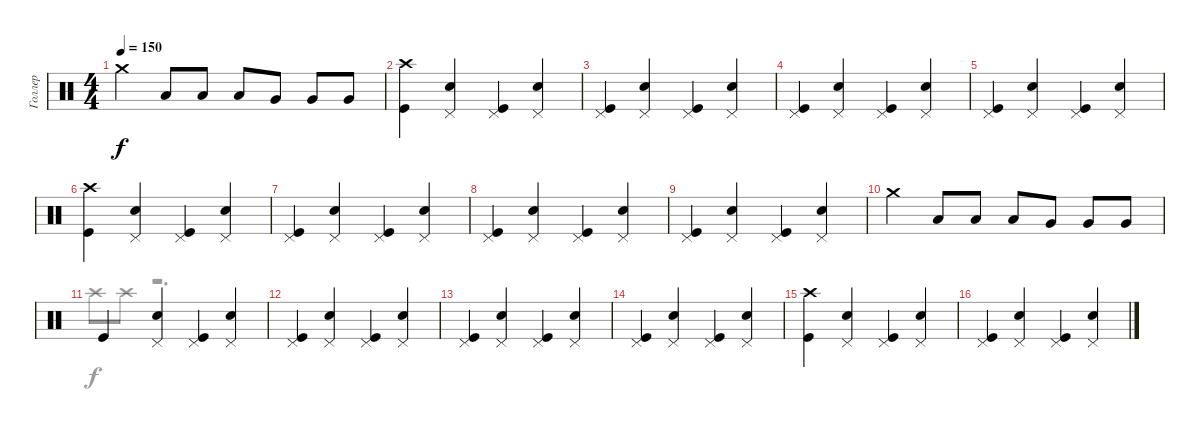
\track ("Голлер" "Голлер") {instrument percussion}
\staff {score}
\articulation defaults
\voice
\ts (4 4)
\tempo 150
\clef neutral
\ks c "Crash medium (hit)".4{dy f} "Low Floor Tom (hit)".8 "Low Floor Tom (hit)".8 "Low Floor Tom (hit)".8 "Very Low Tom (hit)".8 "Very Low Tom (hit)".8 "Very Low Tom (hit)".8
|
("Crash high (hit)" "Kick (hit)").4 ("Pedal Hi-Hat (hit)" "Snare (hit) 2").4 ("Pedal Hi-Hat (hit)" "Kick (hit)").4 ("Pedal Hi-Hat (hit)" "Snare (hit) 2").4 |
("Pedal Hi-Hat (hit)" "Kick (hit)").4 ("Pedal Hi-Hat (hit)" "Snare (hit) 2").4 ("Pedal Hi-Hat (hit)" "Kick (hit)").4 ("Pedal Hi-Hat (hit)" "Snare (hit) 2").4 |
("Pedal Hi-Hat (hit)" "Kick (hit)").4 ("Pedal Hi-Hat (hit)" "Snare (hit) 2").4 ("Pedal Hi-Hat (hit)" "Kick (hit)").4 ("Pedal Hi-Hat (hit)" "Snare (hit) 2").4 |
("Pedal Hi-Hat (hit)" "Kick (hit)").4 ("Pedal Hi-Hat (hit)" "Snare (hit) 2").4 ("Pedal Hi-Hat (hit)" "Kick (hit)").4 ("Pedal Hi-Hat (hit)" "Snare (hit) 2").4 |
("Crash high (hit)" "Kick (hit)").4 ("Pedal Hi-Hat (hit)" "Snare (hit) 2").4 ("Pedal Hi-Hat (hit)" "Kick (hit)").4 ("Pedal Hi-Hat (hit)" "Snare (hit) 2").4 |
("Pedal Hi-Hat (hit)" "Kick (hit)").4 ("Pedal Hi-Hat (hit)" "Snare (hit) 2").4 ("Pedal Hi-Hat (hit)" "Kick (hit)").4 ("Pedal Hi-Hat (hit)" "Snare (hit) 2").4 |
("Pedal Hi-Hat (hit)" "Kick (hit)").4 ("Pedal Hi-Hat (hit)" "Snare (hit) 2").4 ("Pedal Hi-Hat (hit)" "Kick (hit)").4 ("Pedal Hi-Hat (hit)" "Snare (hit) 2").4 |
("Pedal Hi-Hat (hit)" "Kick (hit)").4 ("Pedal Hi-Hat (hit)" "Snare (hit) 2").4 ("Pedal Hi-Hat (hit)" "Kick (hit)").4 ("Pedal Hi-Hat (hit)" "Snare (hit) 2").4 |
"Crash medium (hit)".4 "Low Floor Tom (hit)".8 "Low Floor Tom (hit)".8 "Low Floor Tom (hit)".8 "Very Low Tom (hit)".8 "Very Low Tom (hit)".8 "Very Low Tom (hit)".8 |
"Kick (hit)".4 ("Pedal Hi-Hat (hit)" "Snare (hit) 2").4 ("Pedal Hi-Hat (hit)" "Kick (hit)").4 ("Pedal Hi-Hat (hit)" "Snare (hit) 2").4 |
("Pedal Hi-Hat (hit)" "Kick (hit)").4 ("Pedal Hi-Hat (hit)" "Snare (hit) 2").4 ("Pedal Hi-Hat (hit)" "Kick (hit)").4 ("Pedal Hi-Hat (hit)" "Snare (hit) 2").4 |
("Pedal Hi-Hat (hit)" "Kick (hit)").4 ("Pedal Hi-Hat (hit)" "Snare (hit) 2").4 ("Pedal Hi-Hat (hit)" "Kick (hit)").4 ("Pedal Hi-Hat (hit)" "Snare (hit) 2").4 |
("Pedal Hi-Hat (hit)" "Kick (hit)").4 ("Pedal Hi-Hat (hit)" "Snare (hit) 2").4 ("Pedal Hi-Hat (hit)" "Kick (hit)").4 ("Pedal Hi-Hat (hit)" "Snare (hit) 2").4 |
("Crash high (hit)" "Kick (hit)").4 ("Pedal Hi-Hat (hit)" "Snare (hit) 2").4 ("Pedal Hi-Hat (hit)" "Kick (hit)").4 ("Pedal Hi-Hat (hit)" "Snare (hit) 2").4 |
("Pedal Hi-Hat (hit)" "Kick (hit)").4 ("Pedal Hi-Hat (hit)" "Snare (hit) 2").4 ("Pedal Hi-Hat (hit)" "Kick (hit)").4 ("Pedal Hi-Hat (hit)" "Snare (hit) 2").4
\voice
\clef neutral
\ottava regular
\simile none
\ks c
|
|
|
|
|
|
|
|
|
|
"Crash high (hit)".8 "Crash high (hit)".8 r.2{d} |
|
|
|
|
